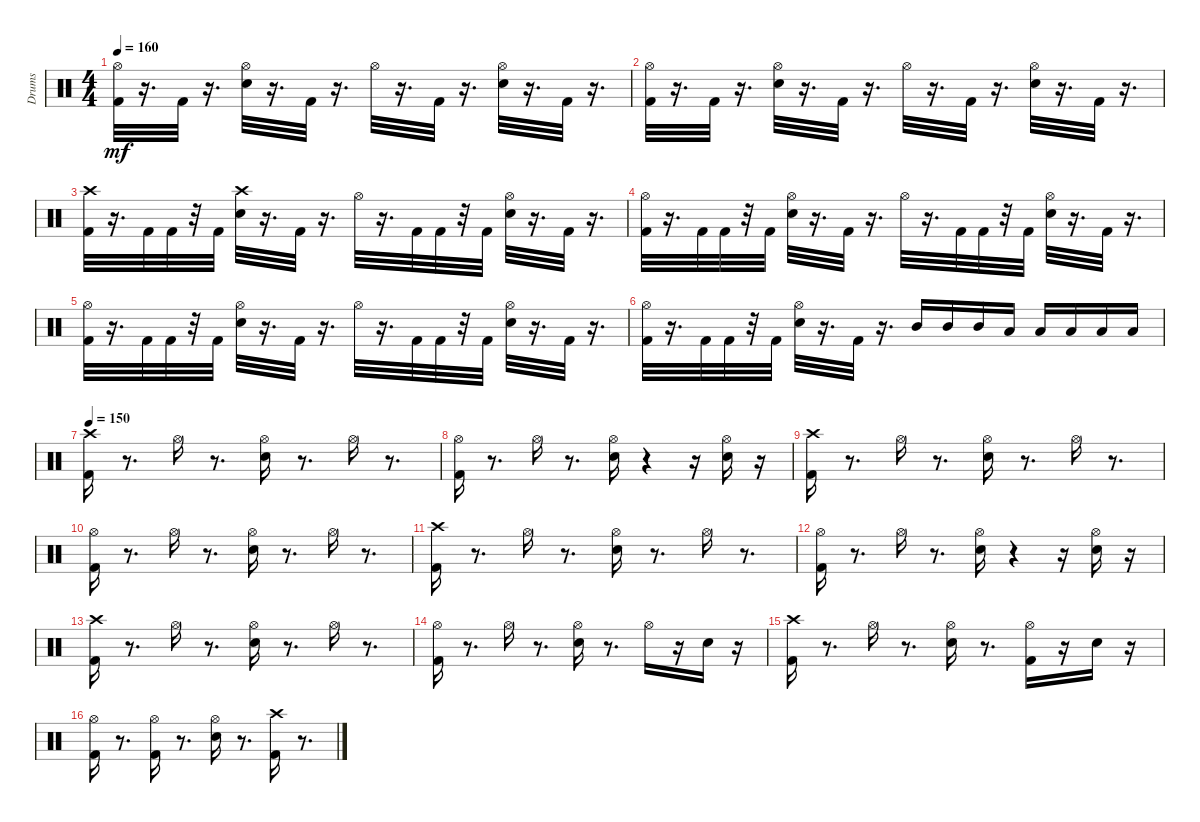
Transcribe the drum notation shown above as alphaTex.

\track ("Drums               " "Drums     ") {instrument percussion}
\staff {score}
\articulation defaults
\ts (4 4)
\tempo 160
\clef neutral
\ks c
("Kick (hit) 2" "Hi-Hat (open)").32{dy mf} r.16{d} "Kick (hit) 2".32 r.16{d} ("Hi-Hat (open)" "Snare (hit) 2").32 r.16{d} "Kick (hit) 2".32 r.16{d} "Hi-Hat (open)".32 r.16{d} "Kick (hit) 2".32 r.16{d} ("Hi-Hat (open)" "Snare (hit) 2").32 r.16{d} "Kick (hit) 2".32 r.16{d} |
("Kick (hit) 2" "Hi-Hat (open)").32 r.16{d} "Kick (hit) 2".32 r.16{d} ("Hi-Hat (open)" "Snare (hit) 2").32 r.16{d} "Kick (hit) 2".32 r.16{d} "Hi-Hat (open)".32 r.16{d} "Kick (hit) 2".32 r.16{d} ("Hi-Hat (open)" "Snare (hit) 2").32 r.16{d} "Kick (hit) 2".32 r.16{d} |
("Kick (hit) 2" "Crash high (hit)").32 r.16{d} "Kick (hit) 2".32 "Kick (hit) 2".32 r.32 "Kick (hit) 2".32 ("Snare (hit) 2" "Crash high (hit)").32 r.16{d} "Kick (hit) 2".32 r.16{d} "Hi-Hat (open)".32 r.16{d} "Kick (hit) 2".32 "Kick (hit) 2".32 r.32 "Kick (hit) 2".32 ("Hi-Hat (open)" "Snare (hit) 2").32 r.16{d} "Kick (hit) 2".32 r.16{d} |
("Kick (hit) 2" "Hi-Hat (open)").32 r.16{d} "Kick (hit) 2".32 "Kick (hit) 2".32 r.32 "Kick (hit) 2".32 ("Hi-Hat (open)" "Snare (hit) 2").32 r.16{d} "Kick (hit) 2".32 r.16{d} "Hi-Hat (open)".32 r.16{d} "Kick (hit) 2".32 "Kick (hit) 2".32 r.32 "Kick (hit) 2".32 ("Hi-Hat (open)" "Snare (hit) 2").32 r.16{d} "Kick (hit) 2".32 r.16{d} |
("Kick (hit) 2" "Hi-Hat (open)").32 r.16{d} "Kick (hit) 2".32 "Kick (hit) 2".32 r.32 "Kick (hit) 2".32 ("Hi-Hat (open)" "Snare (hit) 2").32 r.16{d} "Kick (hit) 2".32 r.16{d} "Hi-Hat (open)".32 r.16{d} "Kick (hit) 2".32 "Kick (hit) 2".32 r.32 "Kick (hit) 2".32 ("Hi-Hat (open)" "Snare (hit) 2").32 r.16{d} "Kick (hit) 2".32 r.16{d} |
("Kick (hit) 2" "Hi-Hat (open)").32 r.16{d} "Kick (hit) 2".32 "Kick (hit) 2".32 r.32 "Kick (hit) 2".32 ("Hi-Hat (open)" "Snare (hit) 2").32 r.16{d} "Kick (hit) 2".32 r.16{d} "Mid Tom (hit)".16 "Mid Tom (hit)".16 "Mid Tom (hit)".16 "Low Tom (hit)".16 "Low Tom (hit)".16 "Low Tom (hit)".16 "Low Floor Tom (hit)".16 "Low Floor Tom (hit)".16 |
\tempo 150
("Crash high (hit)" "Kick (hit) 2").16 r.8{d} "Hi-Hat (open)".16 r.8{d} ("Hi-Hat (open)" "Snare (hit) 2").16 r.8{d} "Hi-Hat (open)".16 r.8{d} |
("Kick (hit) 2" "Hi-Hat (open)").16 r.8{d} "Hi-Hat (open)".16 r.8{d} ("Hi-Hat (open)" "Snare (hit) 2").16 r.4 r.16 ("Snare (hit) 2" "Hi-Hat (open)").16 r.16 |
("Kick (hit) 2" "Crash high (hit)").16 r.8{d} "Hi-Hat (open)".16 r.8{d} ("Hi-Hat (open)" "Snare (hit) 2").16 r.8{d} "Hi-Hat (open)".16 r.8{d} |
("Kick (hit) 2" "Hi-Hat (open)").16 r.8{d} "Hi-Hat (open)".16 r.8{d} ("Hi-Hat (open)" "Snare (hit) 2").16 r.8{d} "Hi-Hat (open)".16 r.8{d} |
("Kick (hit) 2" "Crash high (hit)").16 r.8{d} "Hi-Hat (open)".16 r.8{d} ("Hi-Hat (open)" "Snare (hit) 2").16 r.8{d} "Hi-Hat (open)".16 r.8{d} |
("Kick (hit) 2" "Hi-Hat (open)").16 r.8{d} "Hi-Hat (open)".16 r.8{d} ("Hi-Hat (open)" "Snare (hit) 2").16 r.4 r.16 ("Snare (hit) 2" "Hi-Hat (open)").16 r.16 |
("Kick (hit) 2" "Crash high (hit)").16 r.8{d} "Hi-Hat (open)".16 r.8{d} ("Hi-Hat (open)" "Snare (hit) 2").16 r.8{d} "Hi-Hat (open)".16 r.8{d} |
("Kick (hit) 2" "Hi-Hat (open)").16 r.8{d} "Hi-Hat (open)".16 r.8{d} ("Hi-Hat (open)" "Snare (hit) 2").16 r.8{d} "Hi-Hat (open)".16 r.16 "Snare (hit) 2".16 r.16 |
("Crash high (hit)" "Kick (hit) 2").16 r.8{d} "Hi-Hat (open)".16 r.8{d} ("Hi-Hat (open)" "Snare (hit) 2").16 r.8{d} ("Hi-Hat (open)" "Kick (hit) 2").16 r.16 "Snare (hit) 2".16 r.16 |
("Kick (hit) 2" "Hi-Hat (open)").16 r.8{d} ("Hi-Hat (open)" "Kick (hit) 2").16 r.8{d} ("Hi-Hat (open)" "Snare (hit) 2").16 r.8{d} ("Kick (hit) 2" "Crash high (hit)").16 r.8{d}
